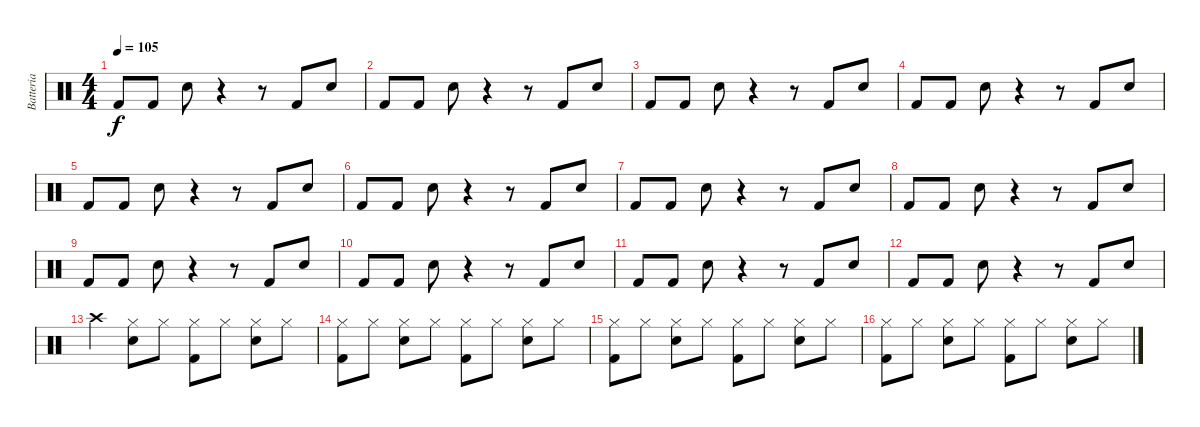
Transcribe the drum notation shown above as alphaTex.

\track ("Batteria" "Batteria") {instrument percussion}
\staff {score}
\articulation defaults
\ts (4 4)
\tempo 105
\clef neutral
\ks c "Kick (hit) 2".8{dy f} "Kick (hit) 2".8 "Snare (hit) 2".8
r.4 r.8 "Kick (hit) 2".8 "Snare (hit) 2".8 |
"Kick (hit) 2".8 "Kick (hit) 2".8 "Snare (hit) 2".8 r.4 r.8 "Kick (hit) 2".8 "Snare (hit) 2".8 |
"Kick (hit) 2".8 "Kick (hit) 2".8 "Snare (hit) 2".8 r.4 r.8 "Kick (hit) 2".8 "Snare (hit) 2".8 |
"Kick (hit) 2".8 "Kick (hit) 2".8 "Snare (hit) 2".8 r.4 r.8 "Kick (hit) 2".8 "Snare (hit) 2".8 |
"Kick (hit) 2".8 "Kick (hit) 2".8 "Snare (hit) 2".8 r.4 r.8 "Kick (hit) 2".8 "Snare (hit) 2".8 |
"Kick (hit) 2".8 "Kick (hit) 2".8 "Snare (hit) 2".8 r.4 r.8 "Kick (hit) 2".8 "Snare (hit) 2".8 |
"Kick (hit) 2".8 "Kick (hit) 2".8 "Snare (hit) 2".8 r.4 r.8 "Kick (hit) 2".8 "Snare (hit) 2".8 |
"Kick (hit) 2".8 "Kick (hit) 2".8 "Snare (hit) 2".8 r.4 r.8 "Kick (hit) 2".8 "Snare (hit) 2".8 |
"Kick (hit) 2".8 "Kick (hit) 2".8 "Snare (hit) 2".8 r.4 r.8 "Kick (hit) 2".8 "Snare (hit) 2".8 |
"Kick (hit) 2".8 "Kick (hit) 2".8 "Snare (hit) 2".8 r.4 r.8 "Kick (hit) 2".8 "Snare (hit) 2".8 |
"Kick (hit) 2".8 "Kick (hit) 2".8 "Snare (hit) 2".8 r.4 r.8 "Kick (hit) 2".8 "Snare (hit) 2".8 |
"Kick (hit) 2".8 "Kick (hit) 2".8 "Snare (hit) 2".8 r.4 r.8 "Kick (hit) 2".8 "Snare (hit) 2".8 |
"Crash high (hit)".4 ("Hi-Hat (closed)" "Snare (hit) 2").8 "Hi-Hat (closed)".8 ("Hi-Hat (closed)" "Kick (hit) 2").8 "Hi-Hat (closed)".8 ("Hi-Hat (closed)" "Snare (hit) 2").8 "Hi-Hat (closed)".8 |
("Hi-Hat (closed)" "Kick (hit) 2").8 "Hi-Hat (closed)".8 ("Hi-Hat (closed)" "Snare (hit) 2").8 "Hi-Hat (closed)".8 ("Hi-Hat (closed)" "Kick (hit) 2").8 "Hi-Hat (closed)".8 ("Hi-Hat (closed)" "Snare (hit) 2").8 "Hi-Hat (closed)".8 |
("Hi-Hat (closed)" "Kick (hit) 2").8 "Hi-Hat (closed)".8 ("Hi-Hat (closed)" "Snare (hit) 2").8 "Hi-Hat (closed)".8 ("Hi-Hat (closed)" "Kick (hit) 2").8 "Hi-Hat (closed)".8 ("Hi-Hat (closed)" "Snare (hit) 2").8 "Hi-Hat (closed)".8 |
("Hi-Hat (closed)" "Kick (hit) 2").8 "Hi-Hat (closed)".8 ("Hi-Hat (closed)" "Snare (hit) 2").8 "Hi-Hat (closed)".8 ("Hi-Hat (closed)" "Kick (hit) 2").8 "Hi-Hat (closed)".8 ("Hi-Hat (closed)" "Snare (hit) 2").8 "Hi-Hat (closed)".8
